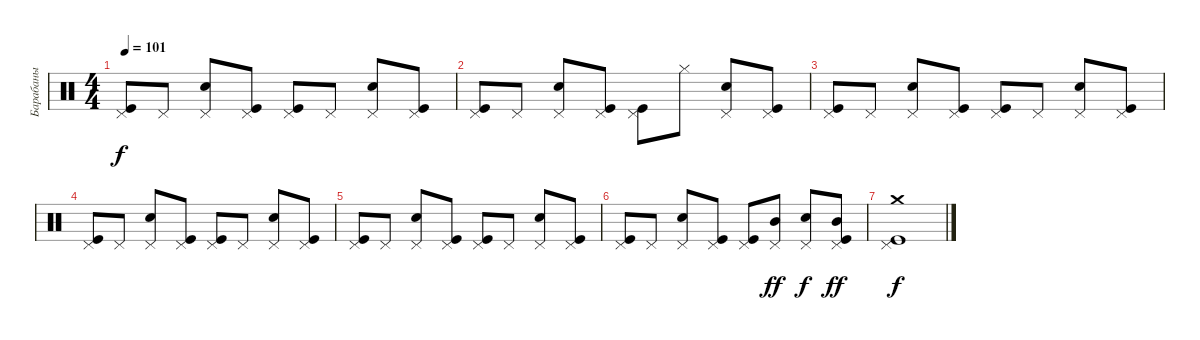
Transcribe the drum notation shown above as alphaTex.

\track ("Барабаны" "Барабаны") {instrument percussion}
\staff {score}
\articulation defaults
\ts (4 4)
\tempo 101
\clef neutral
\ks c
("Kick (hit)" "Pedal Hi-Hat (hit)").8{dy f} "Pedal Hi-Hat (hit)".8 ("Snare (hit) 2" "Pedal Hi-Hat (hit)").8 ("Kick (hit)" "Pedal Hi-Hat (hit)").8 ("Kick (hit)" "Pedal Hi-Hat (hit)").8 "Pedal Hi-Hat (hit)".8 ("Snare (hit) 2" "Pedal Hi-Hat (hit)").8 ("Kick (hit)" "Pedal Hi-Hat (hit)").8 |
("Kick (hit)" "Pedal Hi-Hat (hit)").8 "Pedal Hi-Hat (hit)".8 ("Snare (hit) 2" "Pedal Hi-Hat (hit)").8 ("Kick (hit)" "Pedal Hi-Hat (hit)").8 ("Kick (hit)" "Pedal Hi-Hat (hit)").8 "Hi-Hat (closed)".8 ("Snare (hit) 2" "Pedal Hi-Hat (hit)").8 ("Kick (hit)" "Pedal Hi-Hat (hit)").8 |
("Kick (hit)" "Pedal Hi-Hat (hit)").8 "Pedal Hi-Hat (hit)".8 ("Snare (hit) 2" "Pedal Hi-Hat (hit)").8 ("Kick (hit)" "Pedal Hi-Hat (hit)").8 ("Kick (hit)" "Pedal Hi-Hat (hit)").8 "Pedal Hi-Hat (hit)".8 ("Snare (hit) 2" "Pedal Hi-Hat (hit)").8 ("Kick (hit)" "Pedal Hi-Hat (hit)").8 |
("Kick (hit)" "Pedal Hi-Hat (hit)").8 "Pedal Hi-Hat (hit)".8 ("Snare (hit) 2" "Pedal Hi-Hat (hit)").8 ("Kick (hit)" "Pedal Hi-Hat (hit)").8 ("Kick (hit)" "Pedal Hi-Hat (hit)").8 "Pedal Hi-Hat (hit)".8 ("Snare (hit) 2" "Pedal Hi-Hat (hit)").8 ("Kick (hit)" "Pedal Hi-Hat (hit)").8 |
("Kick (hit)" "Pedal Hi-Hat (hit)").8 "Pedal Hi-Hat (hit)".8 ("Snare (hit) 2" "Pedal Hi-Hat (hit)").8 ("Kick (hit)" "Pedal Hi-Hat (hit)").8 ("Kick (hit)" "Pedal Hi-Hat (hit)").8 "Pedal Hi-Hat (hit)".8 ("Snare (hit) 2" "Pedal Hi-Hat (hit)").8 ("Kick (hit)" "Pedal Hi-Hat (hit)").8 |
("Kick (hit)" "Pedal Hi-Hat (hit)").8 "Pedal Hi-Hat (hit)".8 ("Snare (hit) 2" "Pedal Hi-Hat (hit)").8 ("Kick (hit)" "Pedal Hi-Hat (hit)").8 ("Kick (hit)" "Pedal Hi-Hat (hit)").8 ("Pedal Hi-Hat (hit)" "Mid Tom (hit)").8{dy ff} ("Snare (hit) 2" "Pedal Hi-Hat (hit)").8{dy f} ("Kick (hit)" "Pedal Hi-Hat (hit)" "Mid Tom (hit)").8{dy ff} |
("Kick (hit)" "Pedal Hi-Hat (hit)" "Crash medium (hit)").1{dy f}
